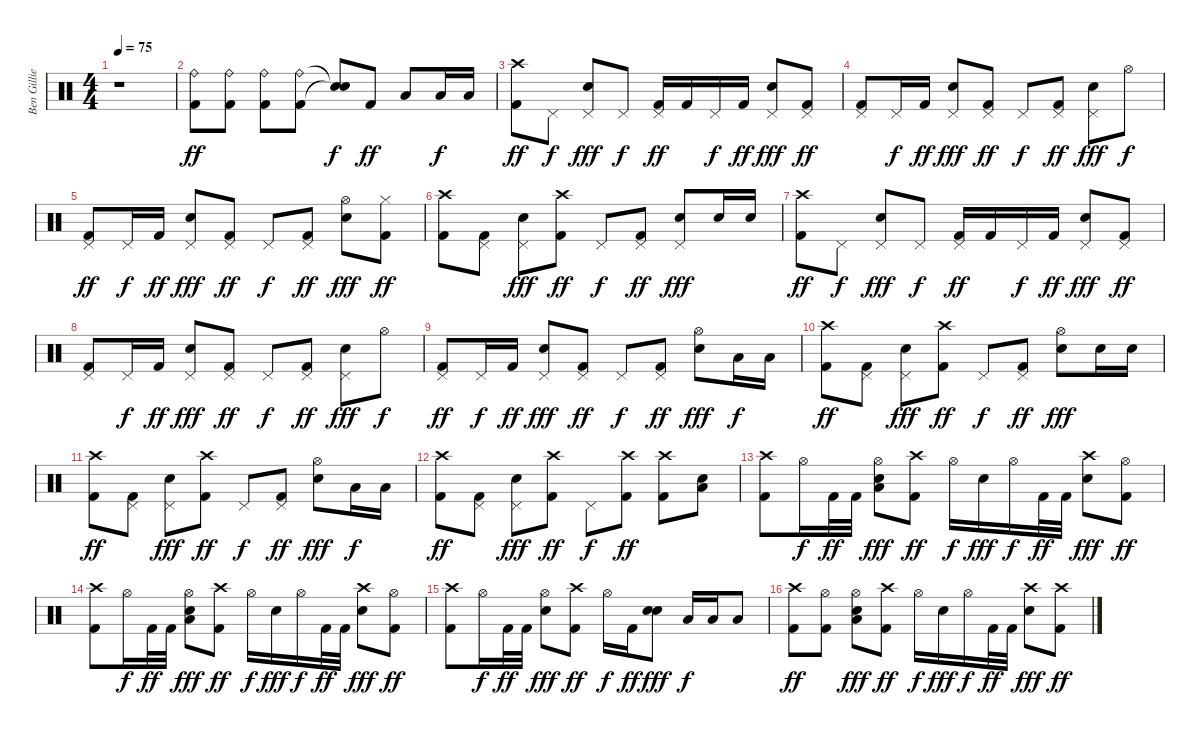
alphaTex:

\track ("Ben Gillies" "Ben Gillie") {instrument percussion}
\staff {score}
\articulation defaults
\ts (4 4)
\tempo 75
\clef neutral
\ks c
r.1{dy ff} |
("Ride (bell)" "Kick (hit) 2").8 ("Ride (bell)" "Kick (hit) 2").8 ("Ride (bell)" "Kick (hit) 2").8 ("Ride (bell)" "Kick (hit) 2").8 ("Snare (hit)"{t} "Snare (hit)"{t}).8{dy f} "Kick (hit) 2".8{dy ff} "Low Tom (hit)".8 "Low Tom (hit)".16{dy f} "Low Tom (hit)".16 |
("Crash high (hit)" "Kick (hit) 2").8{dy ff} "Pedal Hi-Hat (hit)".8{dy f} ("Pedal Hi-Hat (hit)" "Electric Snare (hit)").8{dy fff} "Pedal Hi-Hat (hit)".8{dy f} ("Pedal Hi-Hat (hit)" "Kick (hit) 2").16{dy ff} "Kick (hit) 2".16 "Pedal Hi-Hat (hit)".16{dy f} "Kick (hit) 2".16{dy ff} ("Pedal Hi-Hat (hit)" "Electric Snare (hit)").8{dy fff} ("Pedal Hi-Hat (hit)" "Kick (hit) 2").8{dy ff} |
("Pedal Hi-Hat (hit)" "Kick (hit) 2").8 "Pedal Hi-Hat (hit)".16{dy f} "Kick (hit) 2".16{dy ff} ("Pedal Hi-Hat (hit)" "Electric Snare (hit)").8{dy fff} ("Pedal Hi-Hat (hit)" "Kick (hit) 2").8{dy ff} "Pedal Hi-Hat (hit)".8{dy f} ("Pedal Hi-Hat (hit)" "Kick (hit) 2").8{dy ff} ("Pedal Hi-Hat (hit)" "Electric Snare (hit)").8{dy fff} "Hi-Hat (open)".8{dy f} |
("Pedal Hi-Hat (hit)" "Kick (hit) 2").8{dy ff} "Pedal Hi-Hat (hit)".16{dy f} "Kick (hit) 2".16{dy ff} ("Pedal Hi-Hat (hit)" "Electric Snare (hit)").8{dy fff} ("Pedal Hi-Hat (hit)" "Kick (hit) 2").8{dy ff} "Pedal Hi-Hat (hit)".8{dy f} ("Pedal Hi-Hat (hit)" "Kick (hit) 2").8{dy ff} ("Hi-Hat (open)" "Electric Snare (hit)").8{dy fff} ("Hi-Hat (closed)" "Kick (hit) 2").8{dy ff} |
("Crash high (hit)" "Kick (hit) 2").8 ("Pedal Hi-Hat (hit)" "Kick (hit) 2").8 ("Pedal Hi-Hat (hit)" "Electric Snare (hit)").8{dy fff} ("Crash high (hit)" "Kick (hit) 2").8{dy ff} "Pedal Hi-Hat (hit)".8{dy f} ("Pedal Hi-Hat (hit)" "Kick (hit) 2").8{dy ff} ("Pedal Hi-Hat (hit)" "Electric Snare (hit)").8{dy fff} "Electric Snare (hit)".16 "Electric Snare (hit)".16 |
("Crash high (hit)" "Kick (hit) 2").8{dy ff} "Pedal Hi-Hat (hit)".8{dy f} ("Pedal Hi-Hat (hit)" "Electric Snare (hit)").8{dy fff} "Pedal Hi-Hat (hit)".8{dy f} ("Pedal Hi-Hat (hit)" "Kick (hit) 2").16{dy ff} "Kick (hit) 2".16 "Pedal Hi-Hat (hit)".16{dy f} "Kick (hit) 2".16{dy ff} ("Pedal Hi-Hat (hit)" "Electric Snare (hit)").8{dy fff} ("Pedal Hi-Hat (hit)" "Kick (hit) 2").8{dy ff} |
("Pedal Hi-Hat (hit)" "Kick (hit) 2").8 "Pedal Hi-Hat (hit)".16{dy f} "Kick (hit) 2".16{dy ff} ("Pedal Hi-Hat (hit)" "Electric Snare (hit)").8{dy fff} ("Pedal Hi-Hat (hit)" "Kick (hit) 2").8{dy ff} "Pedal Hi-Hat (hit)".8{dy f} ("Pedal Hi-Hat (hit)" "Kick (hit) 2").8{dy ff} ("Pedal Hi-Hat (hit)" "Electric Snare (hit)").8{dy fff} "Hi-Hat (open)".8{dy f} |
("Pedal Hi-Hat (hit)" "Kick (hit) 2").8{dy ff} "Pedal Hi-Hat (hit)".16{dy f} "Kick (hit) 2".16{dy ff} ("Pedal Hi-Hat (hit)" "Electric Snare (hit)").8{dy fff} ("Pedal Hi-Hat (hit)" "Kick (hit) 2").8{dy ff} "Pedal Hi-Hat (hit)".8{dy f} ("Pedal Hi-Hat (hit)" "Kick (hit) 2").8{dy ff} ("Hi-Hat (open)" "Electric Snare (hit)").8{dy fff} "Low Tom (hit)".16{dy f} "Low Tom (hit)".16 |
("Crash high (hit)" "Kick (hit) 2").8{dy ff} ("Pedal Hi-Hat (hit)" "Kick (hit) 2").8 ("Pedal Hi-Hat (hit)" "Electric Snare (hit)").8{dy fff} ("Crash high (hit)" "Kick (hit) 2").8{dy ff} "Pedal Hi-Hat (hit)".8{dy f} ("Pedal Hi-Hat (hit)" "Kick (hit) 2").8{dy ff} ("Hi-Hat (open)" "Electric Snare (hit)").8{dy fff} "Electric Snare (hit)".16 "Electric Snare (hit)".16 |
("Crash high (hit)" "Kick (hit) 2").8{dy ff} ("Pedal Hi-Hat (hit)" "Kick (hit) 2").8 ("Pedal Hi-Hat (hit)" "Electric Snare (hit)").8{dy fff} ("Crash high (hit)" "Kick (hit) 2").8{dy ff} "Pedal Hi-Hat (hit)".8{dy f} ("Pedal Hi-Hat (hit)" "Kick (hit) 2").8{dy ff} ("Hi-Hat (open)" "Electric Snare (hit)").8{dy fff} "Low Tom (hit)".16{dy f} "Low Tom (hit)".16 |
("Crash high (hit)" "Kick (hit) 2").8{dy ff} ("Pedal Hi-Hat (hit)" "Kick (hit) 2").8 ("Pedal Hi-Hat (hit)" "Electric Snare (hit)").8{dy fff} ("Crash high (hit)" "Kick (hit) 2").8{dy ff} "Pedal Hi-Hat (hit)".8{dy f} ("Crash high (hit)" "Kick (hit) 2").8{dy ff} ("Crash high (hit)" "Kick (hit) 2").8 ("Low Floor Tom (hit)" "Electric Snare (hit)").8 |
("Crash high (hit)" "Kick (hit) 2").8 "Hi-Hat (open)".16{dy f} "Kick (hit) 2".32{dy ff} "Kick (hit) 2".32 ("Low Floor Tom (hit)" "Hi-Hat (open)" "Electric Snare (hit)").8{dy fff} ("Crash high (hit)" "Kick (hit) 2").8{dy ff} "Hi-Hat (open)".16{dy f} "Electric Snare (hit)".16{dy fff} "Hi-Hat (open)".16{dy f} "Kick (hit) 2".32{dy ff} "Kick (hit) 2".32 ("Crash high (hit)" "Electric Snare (hit)").8{dy fff} ("Hi-Hat (open)" "Kick (hit) 2").8{dy ff} |
("Crash high (hit)" "Kick (hit) 2").8 "Hi-Hat (open)".16{dy f} "Kick (hit) 2".32{dy ff} "Kick (hit) 2".32 ("Low Floor Tom (hit)" "Hi-Hat (open)" "Electric Snare (hit)").8{dy fff} ("Crash high (hit)" "Kick (hit) 2").8{dy ff} "Hi-Hat (open)".16{dy f} "Electric Snare (hit)".16{dy fff} "Hi-Hat (open)".16{dy f} "Kick (hit) 2".32{dy ff} "Kick (hit) 2".32 ("Crash high (hit)" "Electric Snare (hit)").8{dy fff} ("Hi-Hat (open)" "Kick (hit) 2").8{dy ff} |
("Crash high (hit)" "Kick (hit) 2").8 "Hi-Hat (open)".16{dy f} "Kick (hit) 2".32{dy ff} "Kick (hit) 2".32 ("Hi-Hat (open)" "Electric Snare (hit)").8{dy fff} ("Crash high (hit)" "Kick (hit) 2").8{dy ff} "Hi-Hat (open)".16{dy f} "Kick (hit) 2".16{dy ff} ("Electric Snare (hit)" "Electric Snare (hit)").8{dy fff} "Low Tom (hit)".16{dy f} "Low Tom (hit)".16 "Low Tom (hit)".8 |
("Crash high (hit)" "Kick (hit) 2").8{dy ff} ("Hi-Hat (open)" "Kick (hit) 2").8 ("Low Floor Tom (hit)" "Hi-Hat (open)" "Electric Snare (hit)").8{dy fff} ("Crash high (hit)" "Kick (hit) 2").8{dy ff} "Hi-Hat (open)".16{dy f} "Electric Snare (hit)".16{dy fff} "Hi-Hat (open)".16{dy f} "Kick (hit) 2".32{dy ff} "Kick (hit) 2".32 ("Crash high (hit)" "Electric Snare (hit)").8{dy fff} ("Crash high (hit)" "Kick (hit) 2").8{dy ff}
